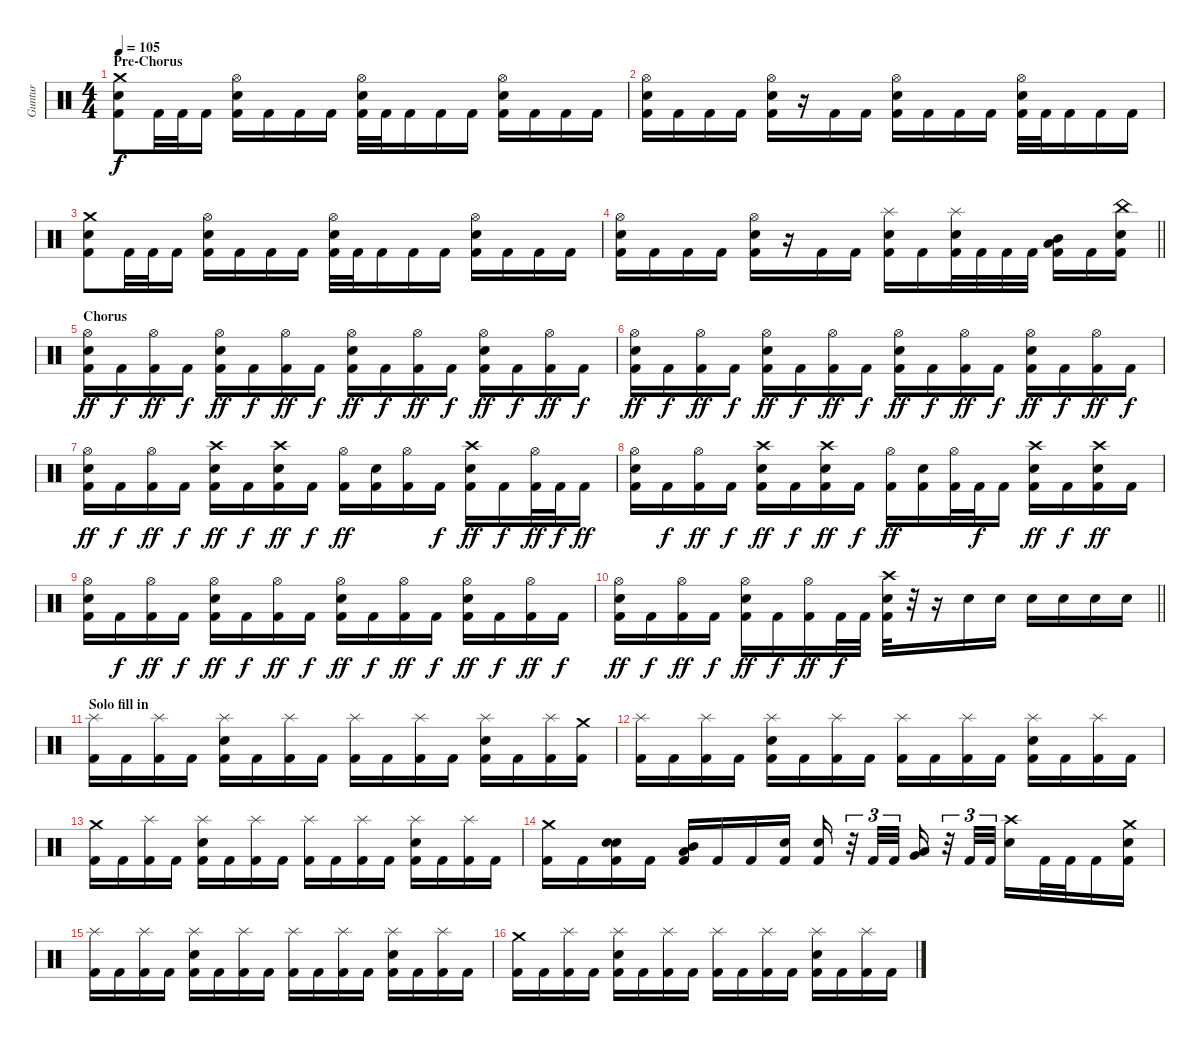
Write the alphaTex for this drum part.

\track ("Guntur" "Guntur") {instrument percussion}
\staff {score}
\articulation defaults
\ts (4 4)
\section ("" "Pre-Chorus")
\tempo 105
\clef neutral
\ks c
("Crash medium (hit)" "Electric Snare (hit)" "Kick (hit) 2").8{dy f} "Kick (hit) 2".32 "Kick (hit) 2".32 "Kick (hit) 2".16 ("Hi-Hat (open)" "Electric Snare (hit)" "Kick (hit) 2").16 "Kick (hit) 2".16 "Kick (hit) 2".16 "Kick (hit) 2".16 ("Hi-Hat (open)" "Electric Snare (hit)" "Kick (hit) 2").32 "Kick (hit) 2".32 "Kick (hit) 2".16 "Kick (hit) 2".16 "Kick (hit) 2".16 ("Hi-Hat (open)" "Electric Snare (hit)" "Kick (hit) 2").16 "Kick (hit) 2".16 "Kick (hit) 2".16 "Kick (hit) 2".16 |
("Hi-Hat (open)" "Electric Snare (hit)" "Kick (hit) 2").16 "Kick (hit) 2".16 "Kick (hit) 2".16 "Kick (hit) 2".16 ("Hi-Hat (open)" "Electric Snare (hit)" "Kick (hit) 2").16 r.16 "Kick (hit) 2".16 "Kick (hit) 2".16 ("Hi-Hat (open)" "Electric Snare (hit)" "Kick (hit) 2").16 "Kick (hit) 2".16 "Kick (hit) 2".16 "Kick (hit) 2".16 ("Hi-Hat (open)" "Electric Snare (hit)" "Kick (hit) 2").32 "Kick (hit) 2".32 "Kick (hit) 2".16 "Kick (hit) 2".16 "Kick (hit) 2".16 |
("Crash medium (hit)" "Electric Snare (hit)" "Kick (hit) 2").8 "Kick (hit) 2".32 "Kick (hit) 2".32 "Kick (hit) 2".16 ("Hi-Hat (open)" "Electric Snare (hit)" "Kick (hit) 2").16 "Kick (hit) 2".16 "Kick (hit) 2".16 "Kick (hit) 2".16 ("Hi-Hat (open)" "Electric Snare (hit)" "Kick (hit) 2").32 "Kick (hit) 2".32 "Kick (hit) 2".16 "Kick (hit) 2".16 "Kick (hit) 2".16 ("Hi-Hat (open)" "Electric Snare (hit)" "Kick (hit) 2").16 "Kick (hit) 2".16 "Kick (hit) 2".16 "Kick (hit) 2".16 |
\barLineRight lightlight
("Hi-Hat (open)" "Electric Snare (hit)" "Kick (hit) 2").16 "Kick (hit) 2".16 "Kick (hit) 2".16 "Kick (hit) 2".16 ("Hi-Hat (open)" "Electric Snare (hit)" "Kick (hit) 2").16 r.16 "Kick (hit) 2".16 "Kick (hit) 2".16 ("Splash (hit)" "Electric Snare (hit)" "Kick (hit) 2").16 "Kick (hit) 2".16 ("Splash (hit)" "Electric Snare (hit)" "Kick (hit) 2").32 "Kick (hit) 2".32 "Kick (hit) 2".32 "Kick (hit) 2".32 ("Mid Tom (hit)" "Low Tom (hit)" "Kick (hit) 2").16 "Kick (hit) 2".16 ("China (hit)" "Electric Snare (hit)" "Kick (hit) 2").16 |
\section ("" "Chorus")
("Hi-Hat (open)" "Electric Snare (hit)" "Kick (hit) 2").16{dy ff} "Kick (hit) 2".16{dy f} ("Hi-Hat (open)" "Kick (hit) 2").16{dy ff} "Kick (hit) 2".16{dy f} ("Hi-Hat (open)" "Electric Snare (hit)" "Kick (hit) 2").16{dy ff} "Kick (hit) 2".16{dy f} ("Hi-Hat (open)" "Kick (hit) 2").16{dy ff} "Kick (hit) 2".16{dy f} ("Hi-Hat (open)" "Electric Snare (hit)" "Kick (hit) 2").16{dy ff} "Kick (hit) 2".16{dy f} ("Hi-Hat (open)" "Kick (hit) 2").16{dy ff} "Kick (hit) 2".16{dy f} ("Hi-Hat (open)" "Electric Snare (hit)" "Kick (hit) 2").16{dy ff} "Kick (hit) 2".16{dy f} ("Hi-Hat (open)" "Kick (hit) 2").16{dy ff} "Kick (hit) 2".16{dy f} |
("Hi-Hat (open)" "Electric Snare (hit)" "Kick (hit) 2").16{dy ff} "Kick (hit) 2".16{dy f} ("Hi-Hat (open)" "Kick (hit) 2").16{dy ff} "Kick (hit) 2".16{dy f} ("Hi-Hat (open)" "Electric Snare (hit)" "Kick (hit) 2").16{dy ff} "Kick (hit) 2".16{dy f} ("Hi-Hat (open)" "Kick (hit) 2").16{dy ff} "Kick (hit) 2".16{dy f} ("Hi-Hat (open)" "Electric Snare (hit)" "Kick (hit) 2").16{dy ff} "Kick (hit) 2".16{dy f} ("Hi-Hat (open)" "Kick (hit) 2").16{dy ff} "Kick (hit) 2".16{dy f} ("Hi-Hat (open)" "Electric Snare (hit)" "Kick (hit) 2").16{dy ff} "Kick (hit) 2".16{dy f} ("Hi-Hat (open)" "Kick (hit) 2").16{dy ff} "Kick (hit) 2".16{dy f} |
("Hi-Hat (open)" "Electric Snare (hit)" "Kick (hit) 2").16{dy ff} "Kick (hit) 2".16{dy f} ("Hi-Hat (open)" "Kick (hit) 2").16{dy ff} "Kick (hit) 2".16{dy f} ("Crash high (hit)" "Electric Snare (hit)" "Kick (hit) 2").16{dy ff} "Kick (hit) 2".16{dy f} ("Crash high (hit)" "Electric Snare (hit)" "Kick (hit) 2").16{dy ff} "Kick (hit) 2".16{dy f} ("Hi-Hat (open)" "Kick (hit) 2").16{dy ff} ("Electric Snare (hit)" "Kick (hit) 2").16 ("Hi-Hat (open)" "Kick (hit) 2").16 "Kick (hit) 2".16{dy f} ("Crash high (hit)" "Electric Snare (hit)" "Kick (hit) 2").16{dy ff} "Kick (hit) 2".16{dy f} ("Hi-Hat (open)" "Kick (hit) 2").32{dy ff} "Kick (hit) 2".32{dy f} "Kick (hit) 2".16{dy ff} |
("Hi-Hat (open)" "Electric Snare (hit)" "Kick (hit) 2").16 "Kick (hit) 2".16{dy f} ("Hi-Hat (open)" "Kick (hit) 2").16{dy ff} "Kick (hit) 2".16{dy f} ("Crash high (hit)" "Electric Snare (hit)" "Kick (hit) 2").16{dy ff} "Kick (hit) 2".16{dy f} ("Crash high (hit)" "Electric Snare (hit)" "Kick (hit) 2").16{dy ff} "Kick (hit) 2".16{dy f} ("Hi-Hat (open)" "Kick (hit) 2").16{dy ff} ("Electric Snare (hit)" "Kick (hit) 2").16 ("Hi-Hat (open)" "Kick (hit) 2").32 "Kick (hit) 2".32{dy f} "Kick (hit) 2".16 ("Crash high (hit)" "Electric Snare (hit)" "Kick (hit) 2").16{dy ff} "Kick (hit) 2".16{dy f} ("Crash high (hit)" "Electric Snare (hit)" "Kick (hit) 2").16{dy ff} "Kick (hit) 2".16 |
("Hi-Hat (open)" "Electric Snare (hit)" "Kick (hit) 2").16 "Kick (hit) 2".16{dy f} ("Hi-Hat (open)" "Kick (hit) 2").16{dy ff} "Kick (hit) 2".16{dy f} ("Hi-Hat (open)" "Electric Snare (hit)" "Kick (hit) 2").16{dy ff} "Kick (hit) 2".16{dy f} ("Hi-Hat (open)" "Kick (hit) 2").16{dy ff} "Kick (hit) 2".16{dy f} ("Hi-Hat (open)" "Electric Snare (hit)" "Kick (hit) 2").16{dy ff} "Kick (hit) 2".16{dy f} ("Hi-Hat (open)" "Kick (hit) 2").16{dy ff} "Kick (hit) 2".16{dy f} ("Hi-Hat (open)" "Electric Snare (hit)" "Kick (hit) 2").16{dy ff} "Kick (hit) 2".16{dy f} ("Hi-Hat (open)" "Kick (hit) 2").16{dy ff} "Kick (hit) 2".16{dy f} |
\barLineRight lightlight
("Hi-Hat (open)" "Electric Snare (hit)" "Kick (hit) 2").16{dy ff} "Kick (hit) 2".16{dy f} ("Hi-Hat (open)" "Kick (hit) 2").16{dy ff} "Kick (hit) 2".16{dy f} ("Hi-Hat (open)" "Electric Snare (hit)" "Kick (hit) 2").16{dy ff} "Kick (hit) 2".16{dy f} ("Hi-Hat (open)" "Kick (hit) 2").16{dy ff} "Kick (hit) 2".32{dy f} "Kick (hit) 2".32 ("Crash high (hit)" "Electric Snare (hit)" "Kick (hit) 2").32 r.32 r.16 "Electric Snare (hit)".16 "Electric Snare (hit)".16 "Electric Snare (hit)".16 "Electric Snare (hit)".16 "Electric Snare (hit)".16 "Electric Snare (hit)".16 |
\section ("" "Solo fill in")
("Splash (hit)" "Kick (hit) 2").16 "Kick (hit) 2".16 ("Splash (hit)" "Kick (hit) 2").16 "Kick (hit) 2".16 ("Splash (hit)" "Electric Snare (hit)" "Kick (hit) 2").16 "Kick (hit) 2".16 ("Splash (hit)" "Kick (hit) 2").16 "Kick (hit) 2".16 ("Splash (hit)" "Kick (hit) 2").16 "Kick (hit) 2".16 ("Splash (hit)" "Kick (hit) 2").16 "Kick (hit) 2".16 ("Splash (hit)" "Electric Snare (hit)" "Kick (hit) 2").16 "Kick (hit) 2".16 ("Splash (hit)" "Kick (hit) 2").16 ("Crash medium (hit)" "Kick (hit) 2").16 |
("Splash (hit)" "Kick (hit) 2").16 "Kick (hit) 2".16 ("Splash (hit)" "Kick (hit) 2").16 "Kick (hit) 2".16 ("Splash (hit)" "Electric Snare (hit)" "Kick (hit) 2").16 "Kick (hit) 2".16 ("Splash (hit)" "Kick (hit) 2").16 "Kick (hit) 2".16 ("Splash (hit)" "Kick (hit) 2").16 "Kick (hit) 2".16 ("Splash (hit)" "Kick (hit) 2").16 "Kick (hit) 2".16 ("Splash (hit)" "Electric Snare (hit)" "Kick (hit) 2").16 "Kick (hit) 2".16 ("Splash (hit)" "Kick (hit) 2").16 "Kick (hit) 2".16 |
("Crash medium (hit)" "Kick (hit) 2").16 "Kick (hit) 2".16 ("Splash (hit)" "Kick (hit) 2").16 "Kick (hit) 2".16 ("Splash (hit)" "Electric Snare (hit)" "Kick (hit) 2").16 "Kick (hit) 2".16 ("Splash (hit)" "Kick (hit) 2").16 "Kick (hit) 2".16 ("Splash (hit)" "Kick (hit) 2").16 "Kick (hit) 2".16 ("Splash (hit)" "Kick (hit) 2").16 "Kick (hit) 2".16 ("Splash (hit)" "Electric Snare (hit)" "Kick (hit) 2").16 "Kick (hit) 2".16 ("Splash (hit)" "Kick (hit) 2").16 "Kick (hit) 2".16 |
("Crash medium (hit)" "Kick (hit) 2").16 "Kick (hit) 2".16 ("Electric Snare (hit)" "Electric Snare (hit)" "Kick (hit) 2").16 "Kick (hit) 2".16 ("Low Tom (hit)" "Mid Tom (hit)" "Kick (hit) 2").16 "Kick (hit) 2".16 "Kick (hit) 2".16 ("Electric Snare (hit)" "Kick (hit) 2").16 ("Electric Snare (hit)" "Kick (hit) 2").16 r.32{tu (3 2)} "Kick (hit) 2".32{tu (3 2)} "Kick (hit) 2".32{tu (3 2) beam splitsecondary} ("Low Floor Tom (hit)" "Very Low Tom (hit)").16 r.32{tu (3 2)} "Kick (hit) 2".32{tu (3 2)} "Kick (hit) 2".32{tu (3 2)} ("Crash high (hit)" "Electric Snare (hit)").16 "Kick (hit) 2".32 "Kick (hit) 2".32 "Kick (hit) 2".16 ("Crash medium (hit)" "Electric Snare (hit)" "Kick (hit) 2").16 |
("Splash (hit)" "Kick (hit) 2").16 "Kick (hit) 2".16 ("Splash (hit)" "Kick (hit) 2").16 "Kick (hit) 2".16 ("Splash (hit)" "Electric Snare (hit)" "Kick (hit) 2").16 "Kick (hit) 2".16 ("Splash (hit)" "Kick (hit) 2").16 "Kick (hit) 2".16 ("Splash (hit)" "Kick (hit) 2").16 "Kick (hit) 2".16 ("Splash (hit)" "Kick (hit) 2").16 "Kick (hit) 2".16 ("Splash (hit)" "Electric Snare (hit)" "Kick (hit) 2").16 "Kick (hit) 2".16 ("Splash (hit)" "Kick (hit) 2").16 "Kick (hit) 2".16 |
("Crash medium (hit)" "Kick (hit) 2").16 "Kick (hit) 2".16 ("Splash (hit)" "Kick (hit) 2").16 "Kick (hit) 2".16 ("Splash (hit)" "Electric Snare (hit)" "Kick (hit) 2").16 "Kick (hit) 2".16 ("Splash (hit)" "Kick (hit) 2").16 "Kick (hit) 2".16 ("Splash (hit)" "Kick (hit) 2").16 "Kick (hit) 2".16 ("Splash (hit)" "Kick (hit) 2").16 "Kick (hit) 2".16 ("Splash (hit)" "Electric Snare (hit)" "Kick (hit) 2").16 "Kick (hit) 2".16 ("Splash (hit)" "Kick (hit) 2").16 "Kick (hit) 2".16
